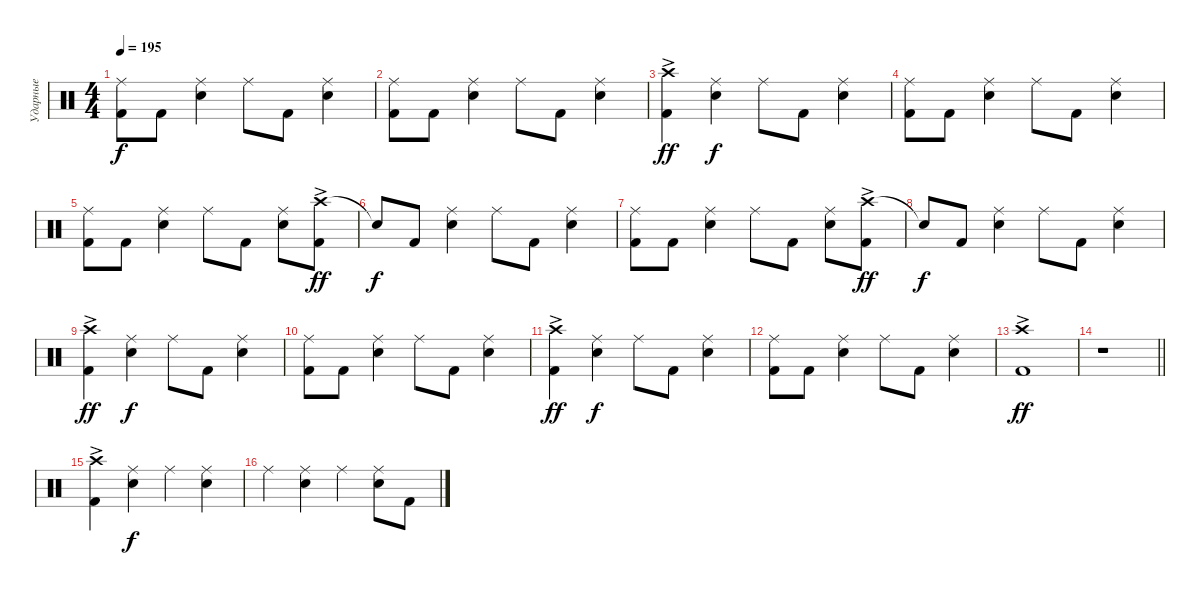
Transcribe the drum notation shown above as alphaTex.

\track ("Ударные" "Ударные") {instrument percussion}
\staff {score}
\articulation defaults
\ts (4 4)
\tempo 195
\clef neutral
\ks c
("Ride (middle)" "Kick (hit) 2").8{dy f} "Kick (hit) 2".8 ("Ride (middle)" "Snare (hit) 2").4 "Ride (middle)".8 "Kick (hit) 2".8 ("Ride (middle)" "Snare (hit) 2").4 |
("Ride (middle)" "Kick (hit) 2").8 "Kick (hit) 2".8 ("Ride (middle)" "Snare (hit) 2").4 "Ride (middle)".8 "Kick (hit) 2".8 ("Ride (middle)" "Snare (hit) 2").4 |
("Crash high (hit)"{ac} "Kick (hit) 2").4{dy ff} ("Ride (middle)" "Snare (hit) 2").4{dy f} "Ride (middle)".8 "Kick (hit) 2".8 ("Ride (middle)" "Snare (hit) 2").4 |
("Ride (middle)" "Kick (hit) 2").8 "Kick (hit) 2".8 ("Ride (middle)" "Snare (hit) 2").4 "Ride (middle)".8 "Kick (hit) 2".8 ("Ride (middle)" "Snare (hit) 2").4 |
("Ride (middle)" "Kick (hit) 2").8 "Kick (hit) 2".8 ("Ride (middle)" "Snare (hit) 2").4 "Ride (middle)".8 "Kick (hit) 2".8 ("Ride (middle)" "Snare (hit) 2").8 ("Crash high (hit)"{ac} "Kick (hit) 2").8{dy ff} |
"Snare (hit)"{t}.8{dy f} "Kick (hit) 2".8 ("Ride (middle)" "Snare (hit) 2").4 "Ride (middle)".8 "Kick (hit) 2".8 ("Ride (middle)" "Snare (hit) 2").4 |
("Ride (middle)" "Kick (hit) 2").8 "Kick (hit) 2".8 ("Ride (middle)" "Snare (hit) 2").4 "Ride (middle)".8 "Kick (hit) 2".8 ("Ride (middle)" "Snare (hit) 2").8 ("Crash high (hit)"{ac} "Kick (hit) 2").8{dy ff} |
"Snare (hit)"{t}.8{dy f} "Kick (hit) 2".8 ("Ride (middle)" "Snare (hit) 2").4 "Ride (middle)".8 "Kick (hit) 2".8 ("Ride (middle)" "Snare (hit) 2").4 |
("Crash high (hit)"{ac} "Kick (hit) 2").4{dy ff} ("Ride (middle)" "Snare (hit) 2").4{dy f} "Ride (middle)".8 "Kick (hit) 2".8 ("Ride (middle)" "Snare (hit) 2").4 |
("Ride (middle)" "Kick (hit) 2").8 "Kick (hit) 2".8 ("Ride (middle)" "Snare (hit) 2").4 "Ride (middle)".8 "Kick (hit) 2".8 ("Ride (middle)" "Snare (hit) 2").4 |
("Crash high (hit)"{ac} "Kick (hit) 2").4{dy ff} ("Ride (middle)" "Snare (hit) 2").4{dy f} "Ride (middle)".8 "Kick (hit) 2".8 ("Ride (middle)" "Snare (hit) 2").4 |
("Ride (middle)" "Kick (hit) 2").8 "Kick (hit) 2".8 ("Ride (middle)" "Snare (hit) 2").4 "Ride (middle)".8 "Kick (hit) 2".8 ("Ride (middle)" "Snare (hit) 2").4 |
("Crash high (hit)"{ac} "Kick (hit) 2"{ac}).1{dy ff} |
\barLineRight lightlight
r.1 |
("Crash high (hit)"{ac} "Kick (hit) 2").4 ("Ride (middle)" "Snare (hit) 2").4{dy f} "Ride (middle)".4 ("Ride (middle)" "Snare (hit) 2").4 |
"Ride (middle)".4 ("Ride (middle)" "Snare (hit) 2").4 "Ride (middle)".4 ("Ride (middle)" "Snare (hit) 2").8 "Kick (hit) 2".8
